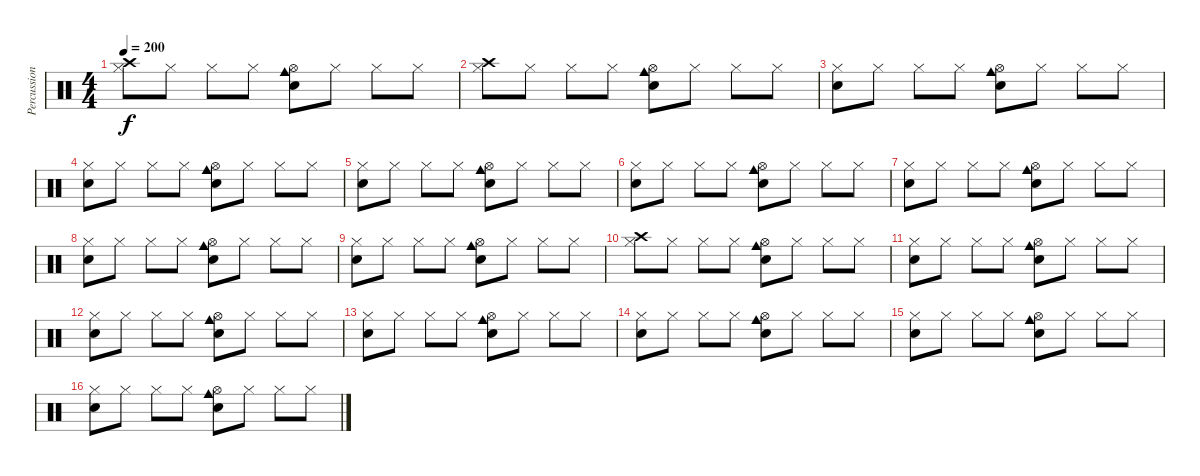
\track ("Percussion" "Percussion") {instrument percussion}
\staff {score}
\articulation defaults
\ts (4 4)
\tempo 200
\clef neutral
\ks c
("Hi-Hat (closed)" "Crash high (hit)").8{dy f} "Hi-Hat (closed)".8 "Hi-Hat (closed)".8 "Hi-Hat (closed)".8 ("Cowbell medium (hit)" "Snare (hit) 2" "Hi-Hat (open)").8 "Hi-Hat (closed)".8 "Hi-Hat (closed)".8 "Hi-Hat (closed)".8 |
("Hi-Hat (closed)" "Crash high (hit)").8 "Hi-Hat (closed)".8 "Hi-Hat (closed)".8 "Hi-Hat (closed)".8 ("Cowbell medium (hit)" "Snare (hit) 2" "Hi-Hat (open)").8 "Hi-Hat (closed)".8 "Hi-Hat (closed)".8 "Hi-Hat (closed)".8 |
("Hi-Hat (closed)" "Electric Snare (hit)").8 "Hi-Hat (closed)".8 "Hi-Hat (closed)".8 "Hi-Hat (closed)".8 ("Cowbell medium (hit)" "Snare (hit) 2" "Hi-Hat (open)").8 "Hi-Hat (closed)".8 "Hi-Hat (closed)".8 "Hi-Hat (closed)".8 |
("Hi-Hat (closed)" "Electric Snare (hit)").8 "Hi-Hat (closed)".8 "Hi-Hat (closed)".8 "Hi-Hat (closed)".8 ("Cowbell medium (hit)" "Snare (hit) 2" "Hi-Hat (open)").8 "Hi-Hat (closed)".8 "Hi-Hat (closed)".8 "Hi-Hat (closed)".8 |
("Hi-Hat (closed)" "Electric Snare (hit)").8 "Hi-Hat (closed)".8 "Hi-Hat (closed)".8 "Hi-Hat (closed)".8 ("Cowbell medium (hit)" "Snare (hit) 2" "Hi-Hat (open)").8 "Hi-Hat (closed)".8 "Hi-Hat (closed)".8 "Hi-Hat (closed)".8 |
("Hi-Hat (closed)" "Electric Snare (hit)").8 "Hi-Hat (closed)".8 "Hi-Hat (closed)".8 "Hi-Hat (closed)".8 ("Cowbell medium (hit)" "Snare (hit) 2" "Hi-Hat (open)").8 "Hi-Hat (closed)".8 "Hi-Hat (closed)".8 "Hi-Hat (closed)".8 |
("Hi-Hat (closed)" "Electric Snare (hit)").8 "Hi-Hat (closed)".8 "Hi-Hat (closed)".8 "Hi-Hat (closed)".8 ("Cowbell medium (hit)" "Snare (hit) 2" "Hi-Hat (open)").8 "Hi-Hat (closed)".8 "Hi-Hat (closed)".8 "Hi-Hat (closed)".8 |
("Hi-Hat (closed)" "Electric Snare (hit)").8 "Hi-Hat (closed)".8 "Hi-Hat (closed)".8 "Hi-Hat (closed)".8 ("Cowbell medium (hit)" "Snare (hit) 2" "Hi-Hat (open)").8 "Hi-Hat (closed)".8 "Hi-Hat (closed)".8 "Hi-Hat (closed)".8 |
("Hi-Hat (closed)" "Electric Snare (hit)").8 "Hi-Hat (closed)".8 "Hi-Hat (closed)".8 "Hi-Hat (closed)".8 ("Cowbell medium (hit)" "Snare (hit) 2" "Hi-Hat (open)").8 "Hi-Hat (closed)".8 "Hi-Hat (closed)".8 "Hi-Hat (closed)".8 |
("Hi-Hat (closed)" "Crash high (hit)").8 "Hi-Hat (closed)".8 "Hi-Hat (closed)".8 "Hi-Hat (closed)".8 ("Cowbell medium (hit)" "Snare (hit) 2" "Hi-Hat (open)").8 "Hi-Hat (closed)".8 "Hi-Hat (closed)".8 "Hi-Hat (closed)".8 |
("Hi-Hat (closed)" "Electric Snare (hit)").8 "Hi-Hat (closed)".8 "Hi-Hat (closed)".8 "Hi-Hat (closed)".8 ("Cowbell medium (hit)" "Snare (hit) 2" "Hi-Hat (open)").8 "Hi-Hat (closed)".8 "Hi-Hat (closed)".8 "Hi-Hat (closed)".8 |
("Hi-Hat (closed)" "Electric Snare (hit)").8 "Hi-Hat (closed)".8 "Hi-Hat (closed)".8 "Hi-Hat (closed)".8 ("Cowbell medium (hit)" "Snare (hit) 2" "Hi-Hat (open)").8 "Hi-Hat (closed)".8 "Hi-Hat (closed)".8 "Hi-Hat (closed)".8 |
("Hi-Hat (closed)" "Electric Snare (hit)").8 "Hi-Hat (closed)".8 "Hi-Hat (closed)".8 "Hi-Hat (closed)".8 ("Cowbell medium (hit)" "Snare (hit) 2" "Hi-Hat (open)").8 "Hi-Hat (closed)".8 "Hi-Hat (closed)".8 "Hi-Hat (closed)".8 |
("Hi-Hat (closed)" "Electric Snare (hit)").8 "Hi-Hat (closed)".8 "Hi-Hat (closed)".8 "Hi-Hat (closed)".8 ("Cowbell medium (hit)" "Snare (hit) 2" "Hi-Hat (open)").8 "Hi-Hat (closed)".8 "Hi-Hat (closed)".8 "Hi-Hat (closed)".8 |
("Hi-Hat (closed)" "Electric Snare (hit)").8 "Hi-Hat (closed)".8 "Hi-Hat (closed)".8 "Hi-Hat (closed)".8 ("Cowbell medium (hit)" "Snare (hit) 2" "Hi-Hat (open)").8 "Hi-Hat (closed)".8 "Hi-Hat (closed)".8 "Hi-Hat (closed)".8 |
("Hi-Hat (closed)" "Electric Snare (hit)").8 "Hi-Hat (closed)".8 "Hi-Hat (closed)".8 "Hi-Hat (closed)".8 ("Cowbell medium (hit)" "Snare (hit) 2" "Hi-Hat (open)").8 "Hi-Hat (closed)".8 "Hi-Hat (closed)".8 "Hi-Hat (closed)".8
